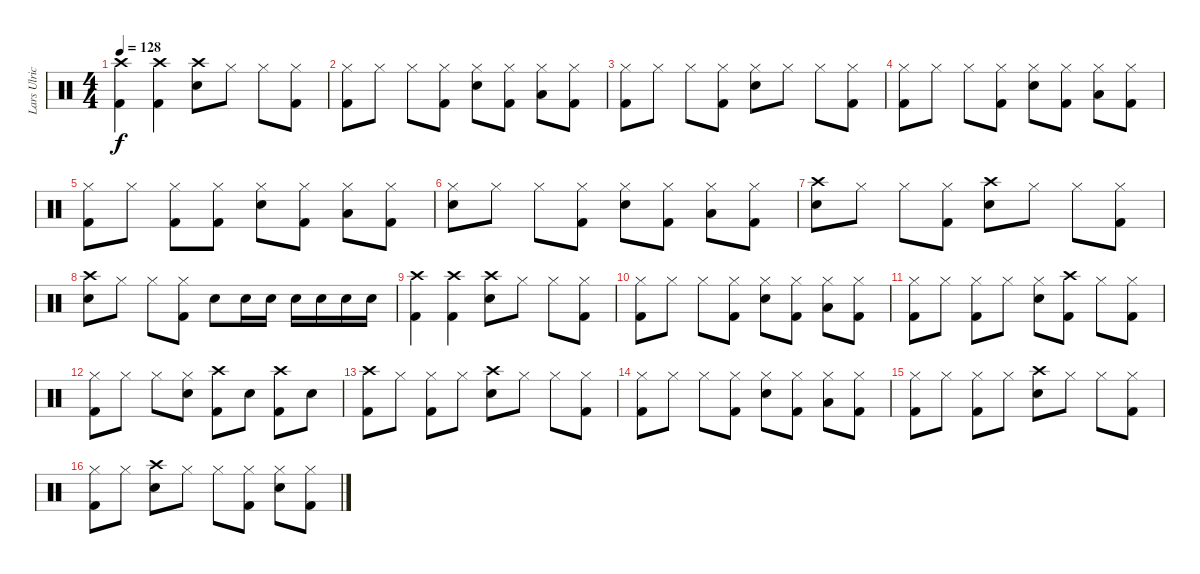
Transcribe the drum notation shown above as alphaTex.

\track ("Lars Ulrich" "Lars Ulric") {instrument percussion}
\staff {score}
\articulation defaults
\ts (4 4)
\tempo 128
\clef neutral
\ks c
("Crash high (hit)" "Kick (hit) 2").4{dy f} ("Crash high (hit)" "Kick (hit) 2").4 ("Crash high (hit)" "Electric Snare (hit)").8 "Hi-Hat (closed)".8 "Hi-Hat (closed)".8 ("Hi-Hat (closed)" "Kick (hit) 2").8 |
("Hi-Hat (closed)" "Kick (hit) 2").8 "Hi-Hat (closed)".8 "Hi-Hat (closed)".8 ("Hi-Hat (closed)" "Kick (hit) 2").8 ("Hi-Hat (closed)" "Electric Snare (hit)").8 ("Hi-Hat (closed)" "Kick (hit) 2").8 ("Hi-Hat (closed)" "Low Floor Tom (hit)").8 ("Hi-Hat (closed)" "Kick (hit) 2").8 |
("Hi-Hat (closed)" "Kick (hit) 2").8 "Hi-Hat (closed)".8 "Hi-Hat (closed)".8 ("Hi-Hat (closed)" "Kick (hit) 2").8 ("Hi-Hat (closed)" "Electric Snare (hit)").8 "Hi-Hat (closed)".8 "Hi-Hat (closed)".8 ("Hi-Hat (closed)" "Kick (hit) 2").8 |
("Hi-Hat (closed)" "Kick (hit) 2").8 "Hi-Hat (closed)".8 "Hi-Hat (closed)".8 ("Hi-Hat (closed)" "Kick (hit) 2").8 ("Hi-Hat (closed)" "Electric Snare (hit)").8 ("Hi-Hat (closed)" "Kick (hit) 2").8 ("Hi-Hat (closed)" "Low Floor Tom (hit)").8 ("Hi-Hat (closed)" "Kick (hit) 2").8 |
("Hi-Hat (closed)" "Kick (hit) 2").8 "Hi-Hat (closed)".8 ("Hi-Hat (closed)" "Kick (hit) 2").8 ("Hi-Hat (closed)" "Kick (hit) 2").8 ("Hi-Hat (closed)" "Electric Snare (hit)").8 ("Hi-Hat (closed)" "Kick (hit) 2").8 ("Hi-Hat (closed)" "Low Floor Tom (hit)").8 ("Hi-Hat (closed)" "Kick (hit) 2").8 |
("Hi-Hat (closed)" "Electric Snare (hit)").8 "Hi-Hat (closed)".8 "Hi-Hat (closed)".8 ("Hi-Hat (closed)" "Kick (hit) 2").8 ("Hi-Hat (closed)" "Electric Snare (hit)").8 ("Hi-Hat (closed)" "Kick (hit) 2").8 ("Hi-Hat (closed)" "Low Floor Tom (hit)").8 ("Hi-Hat (closed)" "Kick (hit) 2").8 |
("Crash high (hit)" "Electric Snare (hit)").8 "Hi-Hat (closed)".8 "Hi-Hat (closed)".8 ("Hi-Hat (closed)" "Kick (hit) 2").8 ("Crash high (hit)" "Electric Snare (hit)").8 "Hi-Hat (closed)".8 "Hi-Hat (closed)".8 ("Hi-Hat (closed)" "Kick (hit) 2").8 |
("Crash high (hit)" "Electric Snare (hit)").8 "Hi-Hat (closed)".8 "Hi-Hat (closed)".8 ("Hi-Hat (closed)" "Kick (hit) 2").8 "Electric Snare (hit)".8 "Electric Snare (hit)".16 "Electric Snare (hit)".16 "Electric Snare (hit)".16 "Electric Snare (hit)".16 "Electric Snare (hit)".16 "Electric Snare (hit)".16 |
("Crash high (hit)" "Kick (hit) 2").4 ("Crash high (hit)" "Kick (hit) 2").4 ("Crash high (hit)" "Electric Snare (hit)").8 "Hi-Hat (closed)".8 "Hi-Hat (closed)".8 ("Hi-Hat (closed)" "Kick (hit) 2").8 |
("Hi-Hat (closed)" "Kick (hit) 2").8 "Hi-Hat (closed)".8 "Hi-Hat (closed)".8 ("Hi-Hat (closed)" "Kick (hit) 2").8 ("Hi-Hat (closed)" "Electric Snare (hit)").8 ("Hi-Hat (closed)" "Kick (hit) 2").8 ("Hi-Hat (closed)" "Low Floor Tom (hit)").8 ("Hi-Hat (closed)" "Kick (hit) 2").8 |
("Hi-Hat (closed)" "Kick (hit) 2").8 "Hi-Hat (closed)".8 ("Hi-Hat (closed)" "Kick (hit) 2").8 "Hi-Hat (closed)".8 ("Hi-Hat (closed)" "Electric Snare (hit)").8 ("Crash high (hit)" "Kick (hit) 2").8 "Hi-Hat (closed)".8 ("Hi-Hat (closed)" "Kick (hit) 2").8 |
("Hi-Hat (closed)" "Kick (hit) 2").8 "Hi-Hat (closed)".8 "Hi-Hat (closed)".8 ("Hi-Hat (closed)" "Electric Snare (hit)").8 ("Crash high (hit)" "Kick (hit) 2").8 "Electric Snare (hit)".8 ("Crash high (hit)" "Kick (hit) 2").8 "Electric Snare (hit)".8 |
("Crash high (hit)" "Kick (hit) 2").8 "Hi-Hat (closed)".8 ("Hi-Hat (closed)" "Kick (hit) 2").8 "Hi-Hat (closed)".8 ("Crash high (hit)" "Electric Snare (hit)").8 "Hi-Hat (closed)".8 "Hi-Hat (closed)".8 ("Hi-Hat (closed)" "Kick (hit) 2").8 |
("Hi-Hat (closed)" "Kick (hit) 2").8 "Hi-Hat (closed)".8 "Hi-Hat (closed)".8 ("Hi-Hat (closed)" "Kick (hit) 2").8 ("Hi-Hat (closed)" "Electric Snare (hit)").8 ("Hi-Hat (closed)" "Kick (hit) 2").8 ("Hi-Hat (closed)" "Low Floor Tom (hit)").8 ("Hi-Hat (closed)" "Kick (hit) 2").8 |
("Hi-Hat (closed)" "Kick (hit) 2").8 "Hi-Hat (closed)".8 ("Hi-Hat (closed)" "Kick (hit) 2").8 "Hi-Hat (closed)".8 ("Crash high (hit)" "Electric Snare (hit)").8 "Hi-Hat (closed)".8 "Hi-Hat (closed)".8 ("Hi-Hat (closed)" "Kick (hit) 2").8 |
("Hi-Hat (closed)" "Kick (hit) 2").8 "Hi-Hat (closed)".8 ("Crash high (hit)" "Electric Snare (hit)").8 "Hi-Hat (closed)".8 "Hi-Hat (closed)".8 ("Hi-Hat (closed)" "Kick (hit) 2").8 ("Hi-Hat (closed)" "Electric Snare (hit)").8 ("Hi-Hat (closed)" "Kick (hit) 2").8
